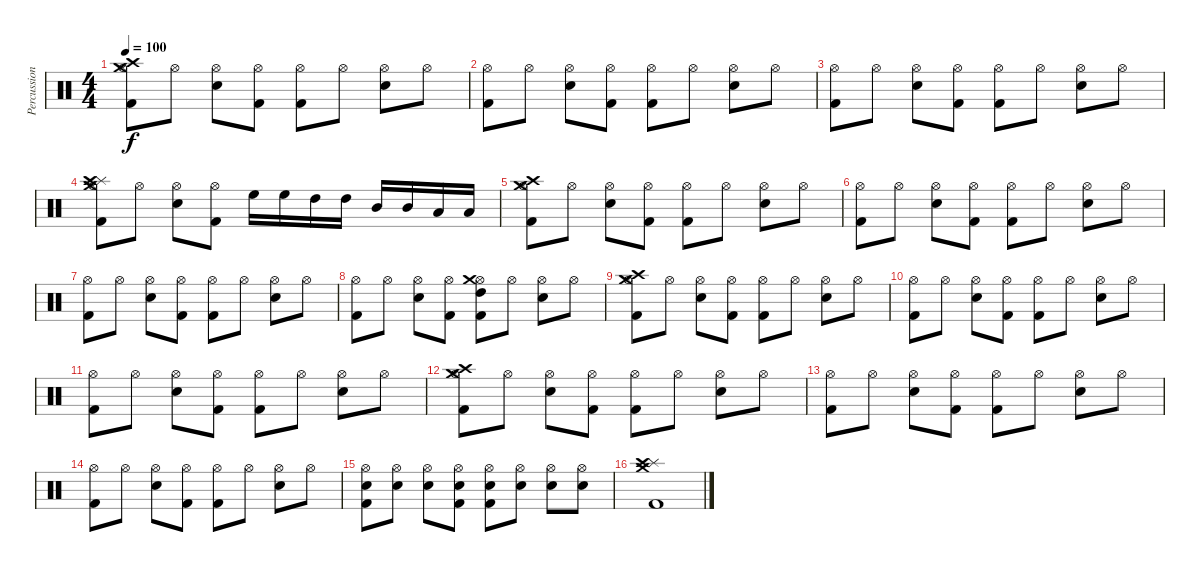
\track ("Percussion" "Percussion") {instrument percussion}
\staff {score}
\articulation defaults
\ts (4 4)
\tempo 100
\clef neutral
\ks c
("Crash high (hit)" "Crash medium (hit)" "Kick (hit) 2" "Hi-Hat (open)").8{dy f} "Hi-Hat (open)".8 ("Hi-Hat (open)" "Electric Snare (hit)").8 ("Hi-Hat (open)" "Kick (hit) 2").8 ("Hi-Hat (open)" "Kick (hit) 2").8 "Hi-Hat (open)".8 ("Hi-Hat (open)" "Electric Snare (hit)").8 "Hi-Hat (open)".8 |
("Kick (hit) 2" "Hi-Hat (open)").8 "Hi-Hat (open)".8 ("Hi-Hat (open)" "Electric Snare (hit)").8 ("Hi-Hat (open)" "Kick (hit) 2").8 ("Hi-Hat (open)" "Kick (hit) 2").8 "Hi-Hat (open)".8 ("Hi-Hat (open)" "Electric Snare (hit)").8 "Hi-Hat (open)".8 |
("Kick (hit) 2" "Hi-Hat (open)").8 "Hi-Hat (open)".8 ("Hi-Hat (open)" "Electric Snare (hit)").8 ("Hi-Hat (open)" "Kick (hit) 2").8 ("Hi-Hat (open)" "Kick (hit) 2").8 "Hi-Hat (open)".8 ("Hi-Hat (open)" "Electric Snare (hit)").8 "Hi-Hat (open)".8 |
("Splash (hit)" "Crash high (hit)" "Crash medium (hit)" "Hi-Hat (open)" "Kick (hit) 2").8 "Hi-Hat (open)".8 ("Hi-Hat (open)" "Electric Snare (hit)").8 ("Hi-Hat (open)" "Kick (hit) 2").8 "High Floor Tom (hit)".16 "High Floor Tom (hit)".16 "High Tom (hit)".16 "High Tom (hit)".16 "Mid Tom (hit)".16 "Mid Tom (hit)".16 "Low Tom (hit)".16 "Low Tom (hit)".16 |
("Crash high (hit)" "Crash medium (hit)" "Kick (hit) 2" "Hi-Hat (open)").8 "Hi-Hat (open)".8 ("Hi-Hat (open)" "Electric Snare (hit)").8 ("Hi-Hat (open)" "Kick (hit) 2").8 ("Hi-Hat (open)" "Kick (hit) 2").8 "Hi-Hat (open)".8 ("Hi-Hat (open)" "Electric Snare (hit)").8 "Hi-Hat (open)".8 |
("Kick (hit) 2" "Hi-Hat (open)").8 "Hi-Hat (open)".8 ("Hi-Hat (open)" "Electric Snare (hit)").8 ("Hi-Hat (open)" "Kick (hit) 2").8 ("Hi-Hat (open)" "Kick (hit) 2").8 "Hi-Hat (open)".8 ("Hi-Hat (open)" "Electric Snare (hit)").8 "Hi-Hat (open)".8 |
("Kick (hit) 2" "Hi-Hat (open)").8 "Hi-Hat (open)".8 ("Hi-Hat (open)" "Electric Snare (hit)").8 ("Hi-Hat (open)" "Kick (hit) 2").8 ("Hi-Hat (open)" "Kick (hit) 2").8 "Hi-Hat (open)".8 ("Hi-Hat (open)" "Electric Snare (hit)").8 "Hi-Hat (open)".8 |
("Kick (hit) 2" "Hi-Hat (open)").8 "Hi-Hat (open)".8 ("Hi-Hat (open)" "Electric Snare (hit)").8 ("Hi-Hat (open)" "Kick (hit) 2").8 ("Hi-Hat (open)" "Kick (hit) 2" "Crash medium (hit)" "High Tom (hit)").8 "Hi-Hat (open)".8 ("Hi-Hat (open)" "Electric Snare (hit)").8 "Hi-Hat (open)".8 |
("Crash high (hit)" "Crash medium (hit)" "Kick (hit) 2" "Hi-Hat (open)").8 "Hi-Hat (open)".8 ("Hi-Hat (open)" "Electric Snare (hit)").8 ("Hi-Hat (open)" "Kick (hit) 2").8 ("Hi-Hat (open)" "Kick (hit) 2").8 "Hi-Hat (open)".8 ("Hi-Hat (open)" "Electric Snare (hit)").8 "Hi-Hat (open)".8 |
("Kick (hit) 2" "Hi-Hat (open)").8 "Hi-Hat (open)".8 ("Hi-Hat (open)" "Electric Snare (hit)").8 ("Hi-Hat (open)" "Kick (hit) 2").8 ("Hi-Hat (open)" "Kick (hit) 2").8 "Hi-Hat (open)".8 ("Hi-Hat (open)" "Electric Snare (hit)").8 "Hi-Hat (open)".8 |
("Kick (hit) 2" "Hi-Hat (open)").8 "Hi-Hat (open)".8 ("Hi-Hat (open)" "Electric Snare (hit)").8 ("Hi-Hat (open)" "Kick (hit) 2").8 ("Hi-Hat (open)" "Kick (hit) 2").8 "Hi-Hat (open)".8 ("Hi-Hat (open)" "Electric Snare (hit)").8 "Hi-Hat (open)".8 |
("Crash high (hit)" "Crash medium (hit)" "Kick (hit) 2" "Hi-Hat (open)").8 "Hi-Hat (open)".8 ("Hi-Hat (open)" "Electric Snare (hit)").8 ("Hi-Hat (open)" "Kick (hit) 2").8 ("Hi-Hat (open)" "Kick (hit) 2").8 "Hi-Hat (open)".8 ("Hi-Hat (open)" "Electric Snare (hit)").8 "Hi-Hat (open)".8 |
("Kick (hit) 2" "Hi-Hat (open)").8 "Hi-Hat (open)".8 ("Hi-Hat (open)" "Electric Snare (hit)").8 ("Hi-Hat (open)" "Kick (hit) 2").8 ("Hi-Hat (open)" "Kick (hit) 2").8 "Hi-Hat (open)".8 ("Hi-Hat (open)" "Electric Snare (hit)").8 "Hi-Hat (open)".8 |
("Kick (hit) 2" "Hi-Hat (open)").8 "Hi-Hat (open)".8 ("Hi-Hat (open)" "Electric Snare (hit)").8 ("Hi-Hat (open)" "Kick (hit) 2").8 ("Hi-Hat (open)" "Kick (hit) 2").8 "Hi-Hat (open)".8 ("Hi-Hat (open)" "Electric Snare (hit)").8 "Hi-Hat (open)".8 |
("Electric Snare (hit)" "Kick (hit) 2" "Hi-Hat (open)").8 ("Hi-Hat (open)" "Electric Snare (hit)").8 ("Hi-Hat (open)" "Electric Snare (hit)").8 ("Hi-Hat (open)" "Electric Snare (hit)" "Kick (hit) 2").8 ("Hi-Hat (open)" "Electric Snare (hit)" "Kick (hit) 2").8 ("Hi-Hat (open)" "Electric Snare (hit)").8 ("Hi-Hat (open)" "Electric Snare (hit)").8 ("Hi-Hat (open)" "Electric Snare (hit)").8 |
("Splash (hit)" "Crash high (hit)" "Crash medium (hit)" "Kick (hit) 2").1
